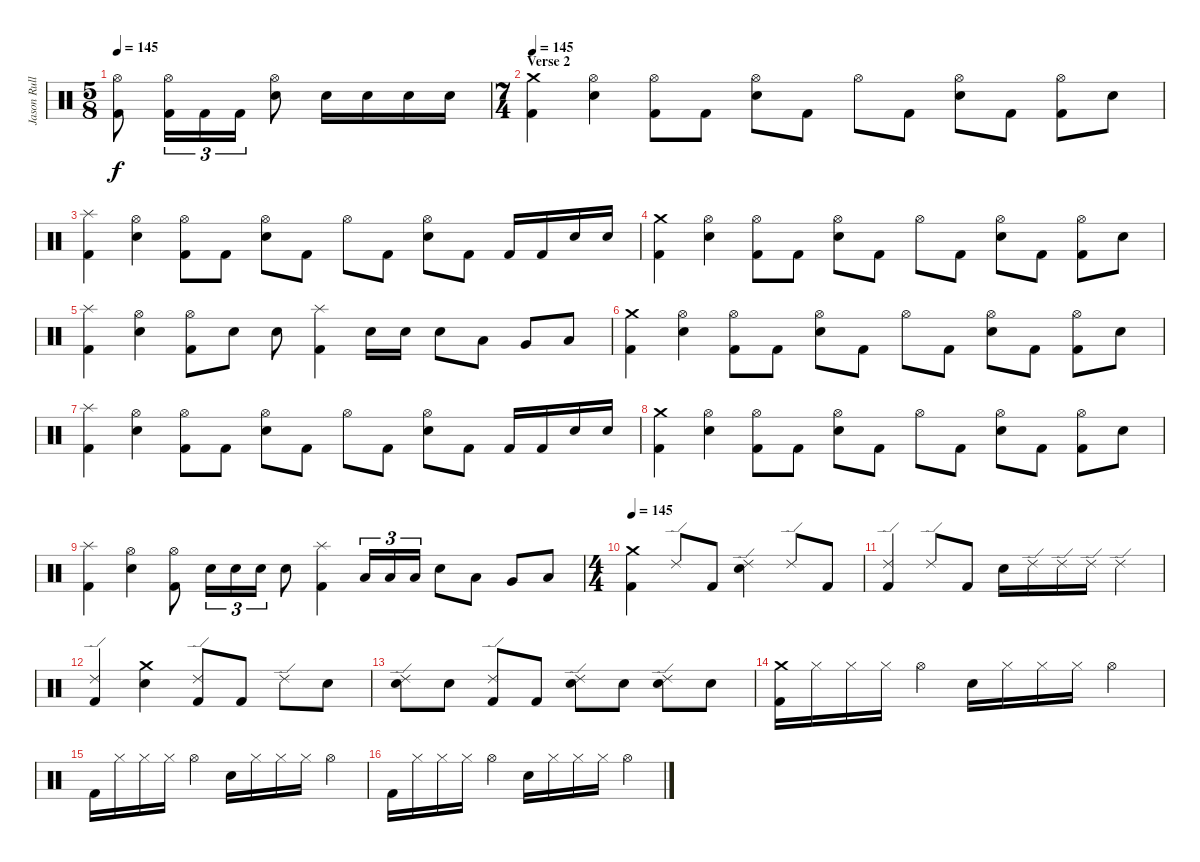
\track ("Jason Rullo" "Jason Rull") {instrument percussion}
\staff {score}
\articulation defaults
\ts (5 8)
\tempo 145
\clef neutral
\ks c
("Hi-Hat (open)" "Kick (hit) 2").8{dy f} ("Hi-Hat (open)" "Kick (hit) 2").16{tu (3 2)} "Kick (hit) 2".16{tu (3 2)} "Kick (hit) 2".16{tu (3 2)} ("Hi-Hat (open)" "Electric Snare (hit)").8 "Electric Snare (hit)".16 "Electric Snare (hit)".16 "Electric Snare (hit)".16 "Electric Snare (hit)".16 |
\ts (7 4)
\section ("" "Verse 2")
\tempo 145
("Crash medium (hit)" "Kick (hit) 2").4 ("Hi-Hat (open)" "Electric Snare (hit)").4 ("Hi-Hat (open)" "Kick (hit) 2").8 "Kick (hit) 2".8 ("Hi-Hat (open)" "Electric Snare (hit)").8 "Kick (hit) 2".8 "Hi-Hat (open)".8 "Kick (hit) 2".8 ("Hi-Hat (open)" "Electric Snare (hit)").8 "Kick (hit) 2".8 ("Hi-Hat (open)" "Kick (hit) 2").8 "Electric Snare (hit)".8 |
("Splash (hit)" "Kick (hit) 2").4 ("Hi-Hat (open)" "Electric Snare (hit)").4 ("Hi-Hat (open)" "Kick (hit) 2").8 "Kick (hit) 2".8 ("Hi-Hat (open)" "Electric Snare (hit)").8 "Kick (hit) 2".8 "Hi-Hat (open)".8 "Kick (hit) 2".8 ("Hi-Hat (open)" "Electric Snare (hit)").8 "Kick (hit) 2".8 "Kick (hit) 2".16 "Kick (hit) 2".16 "Electric Snare (hit)".16 "Electric Snare (hit)".16 |
("Crash medium (hit)" "Kick (hit) 2").4 ("Hi-Hat (open)" "Electric Snare (hit)").4 ("Hi-Hat (open)" "Kick (hit) 2").8 "Kick (hit) 2".8 ("Hi-Hat (open)" "Electric Snare (hit)").8 "Kick (hit) 2".8 "Hi-Hat (open)".8 "Kick (hit) 2".8 ("Hi-Hat (open)" "Electric Snare (hit)").8 "Kick (hit) 2".8 ("Hi-Hat (open)" "Kick (hit) 2").8 "Electric Snare (hit)".8 |
("Splash (hit)" "Kick (hit) 2").4 ("Hi-Hat (open)" "Electric Snare (hit)").4 ("Hi-Hat (open)" "Kick (hit) 2").8 "Electric Snare (hit)".8 "Electric Snare (hit)".8 ("Splash (hit)" "Kick (hit) 2").4 "Electric Snare (hit)".16 "Electric Snare (hit)".16 "Electric Snare (hit)".8 "Low Tom (hit)".8 "Very Low Tom (hit)".8 "Low Floor Tom (hit)".8 |
("Crash medium (hit)" "Kick (hit) 2").4 ("Hi-Hat (open)" "Electric Snare (hit)").4 ("Hi-Hat (open)" "Kick (hit) 2").8 "Kick (hit) 2".8 ("Hi-Hat (open)" "Electric Snare (hit)").8 "Kick (hit) 2".8 "Hi-Hat (open)".8 "Kick (hit) 2".8 ("Hi-Hat (open)" "Electric Snare (hit)").8 "Kick (hit) 2".8 ("Hi-Hat (open)" "Kick (hit) 2").8 "Electric Snare (hit)".8 |
("Splash (hit)" "Kick (hit) 2").4 ("Hi-Hat (open)" "Electric Snare (hit)").4 ("Hi-Hat (open)" "Kick (hit) 2").8 "Kick (hit) 2".8 ("Hi-Hat (open)" "Electric Snare (hit)").8 "Kick (hit) 2".8 "Hi-Hat (open)".8 "Kick (hit) 2".8 ("Hi-Hat (open)" "Electric Snare (hit)").8 "Kick (hit) 2".8 "Kick (hit) 2".16 "Kick (hit) 2".16 "Electric Snare (hit)".16 "Electric Snare (hit)".16 |
("Crash medium (hit)" "Kick (hit) 2").4 ("Hi-Hat (open)" "Electric Snare (hit)").4 ("Hi-Hat (open)" "Kick (hit) 2").8 "Kick (hit) 2".8 ("Hi-Hat (open)" "Electric Snare (hit)").8 "Kick (hit) 2".8 "Hi-Hat (open)".8 "Kick (hit) 2".8 ("Hi-Hat (open)" "Electric Snare (hit)").8 "Kick (hit) 2".8 ("Hi-Hat (open)" "Kick (hit) 2").8 "Electric Snare (hit)".8 |
("Splash (hit)" "Kick (hit) 2").4 ("Hi-Hat (open)" "Electric Snare (hit)").4 ("Hi-Hat (open)" "Kick (hit) 2").8 "Electric Snare (hit)".16{tu (3 2)} "Electric Snare (hit)".16{tu (3 2)} "Electric Snare (hit)".16{tu (3 2)} "Electric Snare (hit)".8 ("Splash (hit)" "Kick (hit) 2").4 "Low Tom (hit)".16{tu (3 2)} "Low Tom (hit)".16{tu (3 2)} "Low Tom (hit)".16{tu (3 2)} "Electric Snare (hit)".8 "Low Tom (hit)".8 "Very Low Tom (hit)".8 "Low Floor Tom (hit)".8 |
\ts (4 4)
\tempo 145
("Crash medium (hit)" "Kick (hit) 2").4 "Ride (edge) 2".8 "Kick (hit) 2".8 ("Electric Snare (hit)" "Ride (edge) 2").4 "Ride (edge) 2".8 "Kick (hit) 2".8 |
("Ride (edge) 2" "Kick (hit) 2").4 "Ride (edge) 2".8 "Kick (hit) 2".8 "Electric Snare (hit)".16 "Ride (edge) 2".16 "Ride (edge) 2".16 "Ride (edge) 2".16 "Ride (edge) 2".4 |
("Ride (edge) 2" "Kick (hit) 2").4 ("Crash medium (hit)" "Electric Snare (hit)").4 ("Ride (edge) 2" "Kick (hit) 2").8 "Kick (hit) 2".8 "Ride (edge) 2".8 "Electric Snare (hit)".8 |
("Ride (edge) 2" "Electric Snare (hit)").8 "Electric Snare (hit)".8 ("Ride (edge) 2" "Kick (hit) 2").8 "Kick (hit) 2".8 ("Ride (edge) 2" "Electric Snare (hit)").8 "Electric Snare (hit)".8 ("Ride (edge) 2" "Electric Snare (hit)").8 "Electric Snare (hit)".8 |
("Crash medium (hit)" "Kick (hit) 2").16 "Hi-Hat (closed)".16 "Hi-Hat (closed)".16 "Hi-Hat (closed)".16 "Hi-Hat (open)".4 "Electric Snare (hit)".16 "Hi-Hat (closed)".16 "Hi-Hat (closed)".16 "Hi-Hat (closed)".16 "Hi-Hat (open)".4 |
"Kick (hit) 2".16 "Hi-Hat (closed)".16 "Hi-Hat (closed)".16 "Hi-Hat (closed)".16 "Hi-Hat (open)".4 "Electric Snare (hit)".16 "Hi-Hat (closed)".16 "Hi-Hat (closed)".16 "Hi-Hat (closed)".16 "Hi-Hat (open)".4 |
"Kick (hit) 2".16 "Hi-Hat (closed)".16 "Hi-Hat (closed)".16 "Hi-Hat (closed)".16 "Hi-Hat (open)".4 "Electric Snare (hit)".16 "Hi-Hat (closed)".16 "Hi-Hat (closed)".16 "Hi-Hat (closed)".16 "Hi-Hat (open)".4
